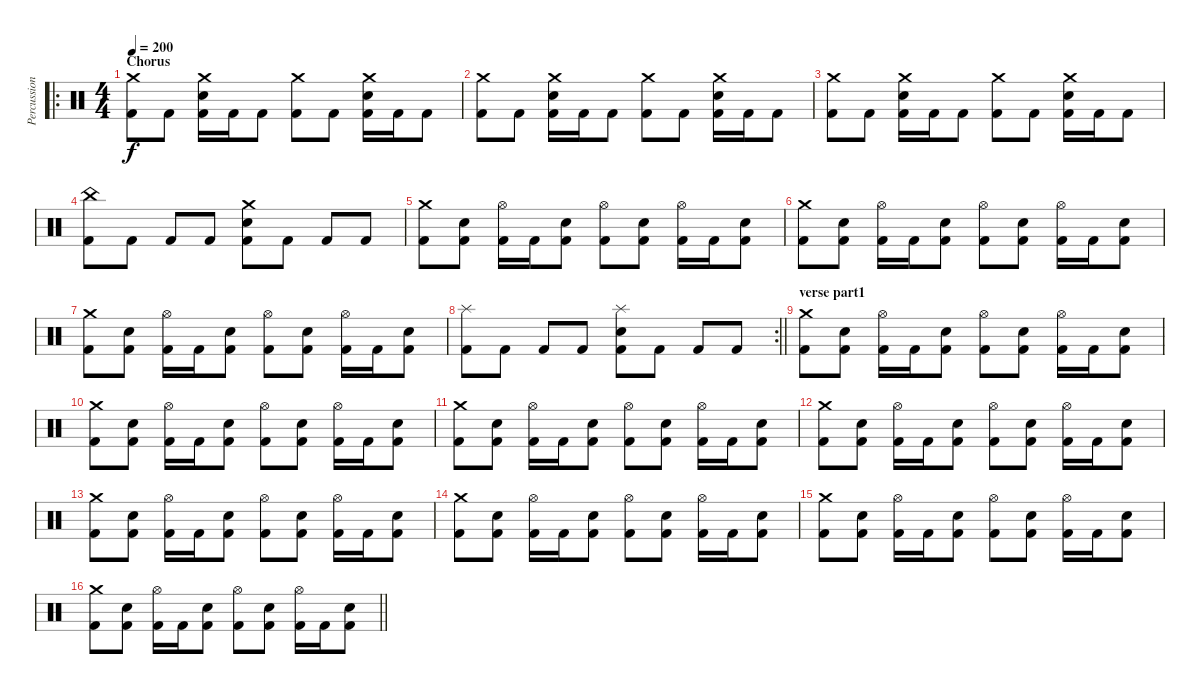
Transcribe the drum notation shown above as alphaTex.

\track ("Percussion" "Percussion") {instrument percussion}
\staff {score}
\articulation defaults
\ro
\ts (4 4)
\section ("" "Chorus")
\tempo 200
\clef neutral
\ks c
("Crash medium (hit)" "Kick (hit) 2").8{dy f} "Kick (hit) 2".8 ("Crash medium (hit)" "Electric Snare (hit)" "Kick (hit) 2").16 "Kick (hit) 2".16 "Kick (hit) 2".8 ("Crash medium (hit)" "Kick (hit) 2").8 "Kick (hit) 2".8 ("Crash medium (hit)" "Electric Snare (hit)" "Kick (hit) 2").16 "Kick (hit) 2".16 "Kick (hit) 2".8 |
("Crash medium (hit)" "Kick (hit) 2").8 "Kick (hit) 2".8 ("Crash medium (hit)" "Electric Snare (hit)" "Kick (hit) 2").16 "Kick (hit) 2".16 "Kick (hit) 2".8 ("Crash medium (hit)" "Kick (hit) 2").8 "Kick (hit) 2".8 ("Crash medium (hit)" "Electric Snare (hit)" "Kick (hit) 2").16 "Kick (hit) 2".16 "Kick (hit) 2".8 |
("Crash medium (hit)" "Kick (hit) 2").8 "Kick (hit) 2".8 ("Crash medium (hit)" "Electric Snare (hit)" "Kick (hit) 2").16 "Kick (hit) 2".16 "Kick (hit) 2".8 ("Crash medium (hit)" "Kick (hit) 2").8 "Kick (hit) 2".8 ("Crash medium (hit)" "Electric Snare (hit)" "Kick (hit) 2").16 "Kick (hit) 2".16 "Kick (hit) 2".8 |
("China (hit)" "Kick (hit) 2").8 "Kick (hit) 2".8 "Kick (hit) 2".8 "Kick (hit) 2".8 ("Crash medium (hit)" "Electric Snare (hit)" "Kick (hit) 2").8 "Kick (hit) 2".8 "Kick (hit) 2".8 "Kick (hit) 2".8 |
("Crash medium (hit)" "Kick (hit) 2").8 ("Electric Snare (hit)" "Kick (hit) 2").8 ("Hi-Hat (open)" "Kick (hit) 2").16 "Kick (hit) 2".16 ("Electric Snare (hit)" "Kick (hit) 2").8 ("Hi-Hat (open)" "Kick (hit) 2").8 ("Electric Snare (hit)" "Kick (hit) 2").8 ("Hi-Hat (open)" "Kick (hit) 2").16 "Kick (hit) 2".16 ("Electric Snare (hit)" "Kick (hit) 2").8 |
("Crash medium (hit)" "Kick (hit) 2").8 ("Electric Snare (hit)" "Kick (hit) 2").8 ("Hi-Hat (open)" "Kick (hit) 2").16 "Kick (hit) 2".16 ("Electric Snare (hit)" "Kick (hit) 2").8 ("Hi-Hat (open)" "Kick (hit) 2").8 ("Electric Snare (hit)" "Kick (hit) 2").8 ("Hi-Hat (open)" "Kick (hit) 2").16 "Kick (hit) 2".16 ("Electric Snare (hit)" "Kick (hit) 2").8 |
("Crash medium (hit)" "Kick (hit) 2").8 ("Electric Snare (hit)" "Kick (hit) 2").8 ("Hi-Hat (open)" "Kick (hit) 2").16 "Kick (hit) 2".16 ("Electric Snare (hit)" "Kick (hit) 2").8 ("Hi-Hat (open)" "Kick (hit) 2").8 ("Electric Snare (hit)" "Kick (hit) 2").8 ("Hi-Hat (open)" "Kick (hit) 2").16 "Kick (hit) 2".16 ("Electric Snare (hit)" "Kick (hit) 2").8 |
\rc 2
\barLineRight lightlight
("Splash (hit)" "Kick (hit) 2").8 "Kick (hit) 2".8 "Kick (hit) 2".8 "Kick (hit) 2".8 ("Splash (hit)" "Electric Snare (hit)" "Kick (hit) 2").8 "Kick (hit) 2".8 "Kick (hit) 2".8 "Kick (hit) 2".8 |
\section ("" "verse part1")
("Crash medium (hit)" "Kick (hit) 2").8 ("Electric Snare (hit)" "Kick (hit) 2").8 ("Hi-Hat (open)" "Kick (hit) 2").16 "Kick (hit) 2".16 ("Electric Snare (hit)" "Kick (hit) 2").8 ("Hi-Hat (open)" "Kick (hit) 2").8 ("Electric Snare (hit)" "Kick (hit) 2").8 ("Hi-Hat (open)" "Kick (hit) 2").16 "Kick (hit) 2".16 ("Electric Snare (hit)" "Kick (hit) 2").8 |
("Crash medium (hit)" "Kick (hit) 2").8 ("Electric Snare (hit)" "Kick (hit) 2").8 ("Hi-Hat (open)" "Kick (hit) 2").16 "Kick (hit) 2".16 ("Electric Snare (hit)" "Kick (hit) 2").8 ("Hi-Hat (open)" "Kick (hit) 2").8 ("Electric Snare (hit)" "Kick (hit) 2").8 ("Hi-Hat (open)" "Kick (hit) 2").16 "Kick (hit) 2".16 ("Electric Snare (hit)" "Kick (hit) 2").8 |
("Crash medium (hit)" "Kick (hit) 2").8 ("Electric Snare (hit)" "Kick (hit) 2").8 ("Hi-Hat (open)" "Kick (hit) 2").16 "Kick (hit) 2".16 ("Electric Snare (hit)" "Kick (hit) 2").8 ("Hi-Hat (open)" "Kick (hit) 2").8 ("Electric Snare (hit)" "Kick (hit) 2").8 ("Hi-Hat (open)" "Kick (hit) 2").16 "Kick (hit) 2".16 ("Electric Snare (hit)" "Kick (hit) 2").8 |
("Crash medium (hit)" "Kick (hit) 2").8 ("Electric Snare (hit)" "Kick (hit) 2").8 ("Hi-Hat (open)" "Kick (hit) 2").16 "Kick (hit) 2".16 ("Electric Snare (hit)" "Kick (hit) 2").8 ("Hi-Hat (open)" "Kick (hit) 2").8 ("Electric Snare (hit)" "Kick (hit) 2").8 ("Hi-Hat (open)" "Kick (hit) 2").16 "Kick (hit) 2".16 ("Electric Snare (hit)" "Kick (hit) 2").8 |
("Crash medium (hit)" "Kick (hit) 2").8 ("Electric Snare (hit)" "Kick (hit) 2").8 ("Hi-Hat (open)" "Kick (hit) 2").16 "Kick (hit) 2".16 ("Electric Snare (hit)" "Kick (hit) 2").8 ("Hi-Hat (open)" "Kick (hit) 2").8 ("Electric Snare (hit)" "Kick (hit) 2").8 ("Hi-Hat (open)" "Kick (hit) 2").16 "Kick (hit) 2".16 ("Electric Snare (hit)" "Kick (hit) 2").8 |
("Crash medium (hit)" "Kick (hit) 2").8 ("Electric Snare (hit)" "Kick (hit) 2").8 ("Hi-Hat (open)" "Kick (hit) 2").16 "Kick (hit) 2".16 ("Electric Snare (hit)" "Kick (hit) 2").8 ("Hi-Hat (open)" "Kick (hit) 2").8 ("Electric Snare (hit)" "Kick (hit) 2").8 ("Hi-Hat (open)" "Kick (hit) 2").16 "Kick (hit) 2".16 ("Electric Snare (hit)" "Kick (hit) 2").8 |
("Crash medium (hit)" "Kick (hit) 2").8 ("Electric Snare (hit)" "Kick (hit) 2").8 ("Hi-Hat (open)" "Kick (hit) 2").16 "Kick (hit) 2".16 ("Electric Snare (hit)" "Kick (hit) 2").8 ("Hi-Hat (open)" "Kick (hit) 2").8 ("Electric Snare (hit)" "Kick (hit) 2").8 ("Hi-Hat (open)" "Kick (hit) 2").16 "Kick (hit) 2".16 ("Electric Snare (hit)" "Kick (hit) 2").8 |
\barLineRight lightlight
("Crash medium (hit)" "Kick (hit) 2").8 ("Electric Snare (hit)" "Kick (hit) 2").8 ("Hi-Hat (open)" "Kick (hit) 2").16 "Kick (hit) 2".16 ("Electric Snare (hit)" "Kick (hit) 2").8 ("Hi-Hat (open)" "Kick (hit) 2").8 ("Electric Snare (hit)" "Kick (hit) 2").8 ("Hi-Hat (open)" "Kick (hit) 2").16 "Kick (hit) 2".16 ("Electric Snare (hit)" "Kick (hit) 2").8
